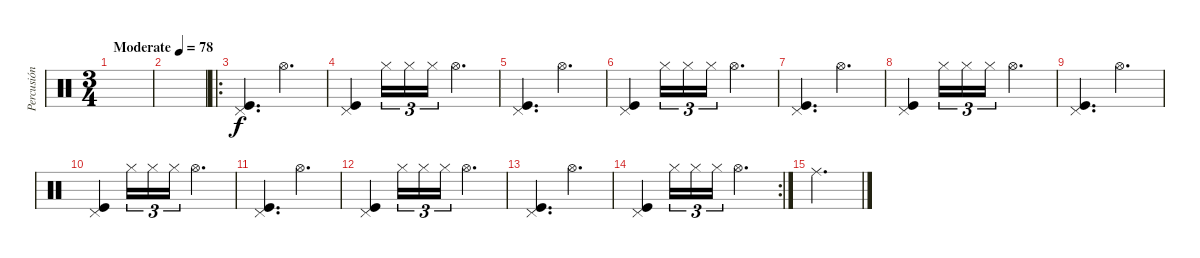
\track ("Percusión" "Percusión") {instrument percussion}
\staff {score}
\articulation defaults
\ts (3 4)
\tempo (78 "Moderate")
\clef neutral
\ks c
|
|
\ro
("Pedal Hi-Hat (hit)" "Kick (hit)").4{d} "Hi-Hat (open)".4{d} |
("Pedal Hi-Hat (hit)" "Kick (hit)").4 "Hi-Hat (closed)".16{tu (3 2)} "Hi-Hat (closed)".16{tu (3 2)} "Hi-Hat (closed)".16{tu (3 2)} "Hi-Hat (open)".4{d} |
("Pedal Hi-Hat (hit)" "Kick (hit)").4{d} "Hi-Hat (open)".4{d} |
("Pedal Hi-Hat (hit)" "Kick (hit)").4 "Hi-Hat (closed)".16{tu (3 2)} "Hi-Hat (closed)".16{tu (3 2)} "Hi-Hat (closed)".16{tu (3 2)} "Hi-Hat (open)".4{d} |
("Pedal Hi-Hat (hit)" "Kick (hit)").4{d} "Hi-Hat (open)".4{d} |
("Pedal Hi-Hat (hit)" "Kick (hit)").4 "Hi-Hat (closed)".16{tu (3 2)} "Hi-Hat (closed)".16{tu (3 2)} "Hi-Hat (closed)".16{tu (3 2)} "Hi-Hat (open)".4{d} |
("Pedal Hi-Hat (hit)" "Kick (hit)").4{d} "Hi-Hat (open)".4{d} |
("Pedal Hi-Hat (hit)" "Kick (hit)").4 "Hi-Hat (closed)".16{tu (3 2)} "Hi-Hat (closed)".16{tu (3 2)} "Hi-Hat (closed)".16{tu (3 2)} "Hi-Hat (open)".4{d} |
("Pedal Hi-Hat (hit)" "Kick (hit)").4{d} "Hi-Hat (open)".4{d} |
("Pedal Hi-Hat (hit)" "Kick (hit)").4 "Hi-Hat (closed)".16{tu (3 2)} "Hi-Hat (closed)".16{tu (3 2)} "Hi-Hat (closed)".16{tu (3 2)} "Hi-Hat (open)".4{d} |
("Pedal Hi-Hat (hit)" "Kick (hit)").4{d} "Hi-Hat (open)".4{d} |
\rc 2
("Pedal Hi-Hat (hit)" "Kick (hit)").4 "Hi-Hat (closed)".16{tu (3 2)} "Hi-Hat (closed)".16{tu (3 2)} "Hi-Hat (closed)".16{tu (3 2)} "Hi-Hat (open)".4{d} |
"Ride (middle)".2{d}
